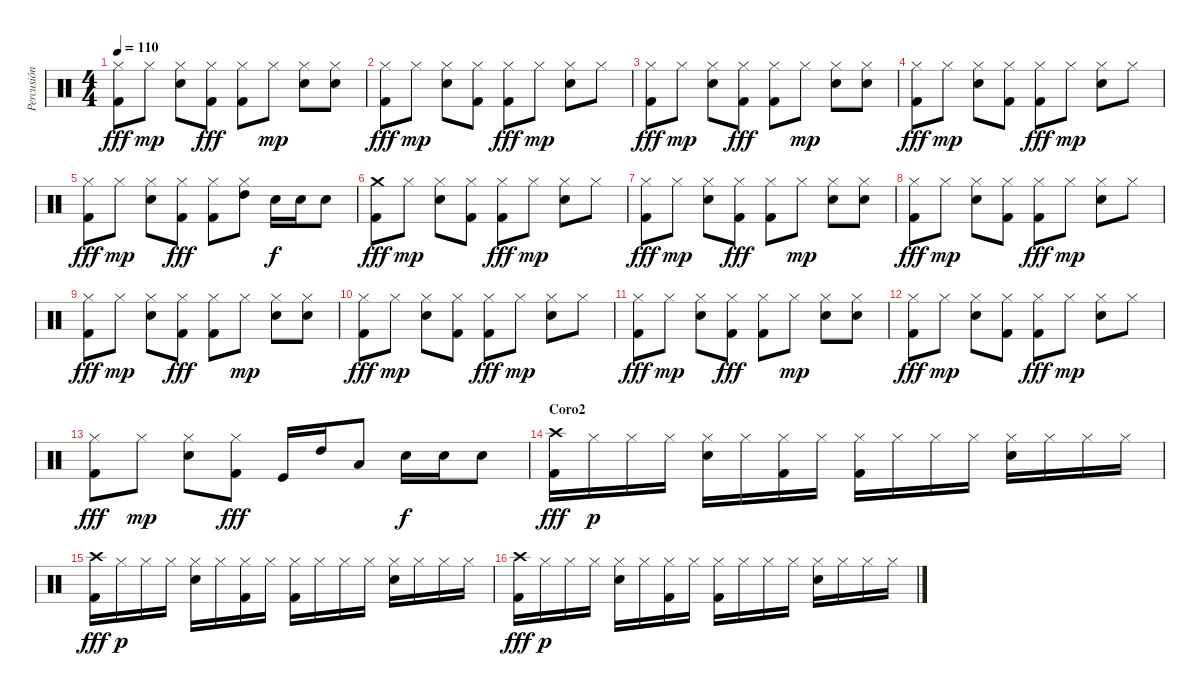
\track ("Percusión" "Percusión") {instrument percussion}
\staff {score}
\articulation defaults
\ts (4 4)
\tempo 110
\clef neutral
\ks c
("Hi-Hat (closed)" "Kick (hit) 2").8{dy fff} "Hi-Hat (closed)".8{dy mp} ("Hi-Hat (closed)" "Snare (hit) 2").8 ("Hi-Hat (closed)" "Kick (hit) 2").8{dy fff} ("Hi-Hat (closed)" "Kick (hit) 2").8 "Hi-Hat (closed)".8{dy mp} ("Hi-Hat (closed)" "Snare (hit) 2").8 ("Hi-Hat (closed)" "Snare (hit) 2").8 |
("Hi-Hat (closed)" "Kick (hit) 2").8{dy fff} "Hi-Hat (closed)".8{dy mp} ("Hi-Hat (closed)" "Snare (hit) 2").8 ("Hi-Hat (closed)" "Kick (hit) 2").8 ("Hi-Hat (closed)" "Kick (hit) 2").8{dy fff} "Hi-Hat (closed)".8{dy mp} ("Hi-Hat (closed)" "Snare (hit) 2").8 "Hi-Hat (closed)".8 |
("Hi-Hat (closed)" "Kick (hit) 2").8{dy fff} "Hi-Hat (closed)".8{dy mp} ("Hi-Hat (closed)" "Snare (hit) 2").8 ("Hi-Hat (closed)" "Kick (hit) 2").8{dy fff} ("Hi-Hat (closed)" "Kick (hit) 2").8 "Hi-Hat (closed)".8{dy mp} ("Hi-Hat (closed)" "Snare (hit) 2").8 ("Hi-Hat (closed)" "Snare (hit) 2").8 |
("Hi-Hat (closed)" "Kick (hit) 2").8{dy fff} "Hi-Hat (closed)".8{dy mp} ("Hi-Hat (closed)" "Snare (hit) 2").8 ("Hi-Hat (closed)" "Kick (hit) 2").8 ("Hi-Hat (closed)" "Kick (hit) 2").8{dy fff} "Hi-Hat (closed)".8{dy mp} ("Hi-Hat (closed)" "Snare (hit) 2").8 "Hi-Hat (closed)".8 |
("Hi-Hat (closed)" "Kick (hit) 2").8{dy fff} "Hi-Hat (closed)".8{dy mp} ("Hi-Hat (closed)" "Snare (hit) 2").8 ("Hi-Hat (closed)" "Kick (hit) 2").8{dy fff} ("Hi-Hat (closed)" "Kick (hit) 2").8 ("Hi-Hat (closed)" "High Tom (hit)").8 "Snare (hit) 2".16{dy f} "Snare (hit) 2".16 "Snare (hit) 2".8 |
("Crash medium (hit)" "Kick (hit) 2").8{dy fff} "Hi-Hat (closed)".8{dy mp} ("Hi-Hat (closed)" "Snare (hit) 2").8 ("Hi-Hat (closed)" "Kick (hit) 2").8 ("Hi-Hat (closed)" "Kick (hit) 2").8{dy fff} "Hi-Hat (closed)".8{dy mp} ("Hi-Hat (closed)" "Snare (hit) 2").8 "Hi-Hat (closed)".8 |
("Hi-Hat (closed)" "Kick (hit) 2").8{dy fff} "Hi-Hat (closed)".8{dy mp} ("Hi-Hat (closed)" "Snare (hit) 2").8 ("Hi-Hat (closed)" "Kick (hit) 2").8{dy fff} ("Hi-Hat (closed)" "Kick (hit) 2").8 "Hi-Hat (closed)".8{dy mp} ("Hi-Hat (closed)" "Snare (hit) 2").8 ("Hi-Hat (closed)" "Snare (hit) 2").8 |
("Hi-Hat (closed)" "Kick (hit) 2").8{dy fff} "Hi-Hat (closed)".8{dy mp} ("Hi-Hat (closed)" "Snare (hit) 2").8 ("Hi-Hat (closed)" "Kick (hit) 2").8 ("Hi-Hat (closed)" "Kick (hit) 2").8{dy fff} "Hi-Hat (closed)".8{dy mp} ("Hi-Hat (closed)" "Snare (hit) 2").8 "Hi-Hat (closed)".8 |
("Hi-Hat (closed)" "Kick (hit) 2").8{dy fff} "Hi-Hat (closed)".8{dy mp} ("Hi-Hat (closed)" "Snare (hit) 2").8 ("Hi-Hat (closed)" "Kick (hit) 2").8{dy fff} ("Hi-Hat (closed)" "Kick (hit) 2").8 "Hi-Hat (closed)".8{dy mp} ("Hi-Hat (closed)" "Snare (hit) 2").8 ("Hi-Hat (closed)" "Snare (hit) 2").8 |
("Hi-Hat (closed)" "Kick (hit) 2").8{dy fff} "Hi-Hat (closed)".8{dy mp} ("Hi-Hat (closed)" "Snare (hit) 2").8 ("Hi-Hat (closed)" "Kick (hit) 2").8 ("Hi-Hat (closed)" "Kick (hit) 2").8{dy fff} "Hi-Hat (closed)".8{dy mp} ("Hi-Hat (closed)" "Snare (hit) 2").8 "Hi-Hat (closed)".8 |
("Hi-Hat (closed)" "Kick (hit) 2").8{dy fff} "Hi-Hat (closed)".8{dy mp} ("Hi-Hat (closed)" "Snare (hit) 2").8 ("Hi-Hat (closed)" "Kick (hit) 2").8{dy fff} ("Hi-Hat (closed)" "Kick (hit) 2").8 "Hi-Hat (closed)".8{dy mp} ("Hi-Hat (closed)" "Snare (hit) 2").8 ("Hi-Hat (closed)" "Snare (hit) 2").8 |
("Hi-Hat (closed)" "Kick (hit) 2").8{dy fff} "Hi-Hat (closed)".8{dy mp} ("Hi-Hat (closed)" "Snare (hit) 2").8 ("Hi-Hat (closed)" "Kick (hit) 2").8 ("Hi-Hat (closed)" "Kick (hit) 2").8{dy fff} "Hi-Hat (closed)".8{dy mp} ("Hi-Hat (closed)" "Snare (hit) 2").8 "Hi-Hat (closed)".8 |
("Hi-Hat (closed)" "Kick (hit) 2").8{dy fff} "Hi-Hat (closed)".8{dy mp} ("Hi-Hat (closed)" "Snare (hit) 2").8 ("Hi-Hat (closed)" "Kick (hit) 2").8{dy fff} "Kick (hit)".16 "High Tom (hit)".16 "Low Tom (hit)".8 "Snare (hit) 2".16{dy f} "Snare (hit) 2".16 "Snare (hit) 2".8 |
\section ("" "Coro2")
("Crash high (hit)" "Kick (hit) 2").16{dy fff} "Hi-Hat (closed)".16{dy p} "Hi-Hat (closed)".16 "Hi-Hat (closed)".16 ("Hi-Hat (closed)" "Snare (hit) 2").16 "Hi-Hat (closed)".16 ("Hi-Hat (closed)" "Kick (hit) 2").16 "Hi-Hat (closed)".16 ("Hi-Hat (closed)" "Kick (hit) 2").16 "Hi-Hat (closed)".16 "Hi-Hat (closed)".16 "Hi-Hat (closed)".16 ("Hi-Hat (closed)" "Snare (hit) 2").16 "Hi-Hat (closed)".16 "Hi-Hat (closed)".16 "Hi-Hat (closed)".16 |
("Crash high (hit)" "Kick (hit) 2").16{dy fff} "Hi-Hat (closed)".16{dy p} "Hi-Hat (closed)".16 "Hi-Hat (closed)".16 ("Hi-Hat (closed)" "Snare (hit) 2").16 "Hi-Hat (closed)".16 ("Hi-Hat (closed)" "Kick (hit) 2").16 "Hi-Hat (closed)".16 ("Hi-Hat (closed)" "Kick (hit) 2").16 "Hi-Hat (closed)".16 "Hi-Hat (closed)".16 "Hi-Hat (closed)".16 ("Hi-Hat (closed)" "Snare (hit) 2").16 "Hi-Hat (closed)".16 "Hi-Hat (closed)".16 "Hi-Hat (closed)".16 |
("Crash high (hit)" "Kick (hit) 2").16{dy fff} "Hi-Hat (closed)".16{dy p} "Hi-Hat (closed)".16 "Hi-Hat (closed)".16 ("Hi-Hat (closed)" "Snare (hit) 2").16 "Hi-Hat (closed)".16 ("Hi-Hat (closed)" "Kick (hit) 2").16 "Hi-Hat (closed)".16 ("Hi-Hat (closed)" "Kick (hit) 2").16 "Hi-Hat (closed)".16 "Hi-Hat (closed)".16 "Hi-Hat (closed)".16 ("Hi-Hat (closed)" "Snare (hit) 2").16 "Hi-Hat (closed)".16 "Hi-Hat (closed)".16 "Hi-Hat (closed)".16
